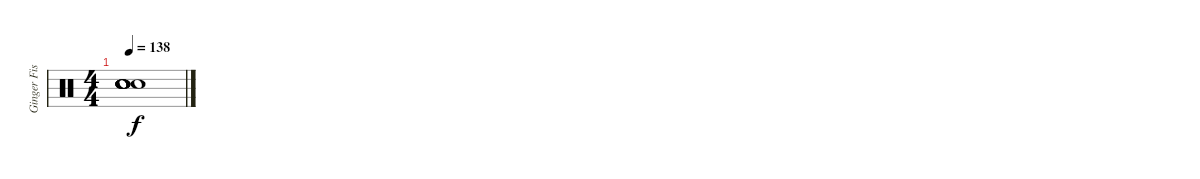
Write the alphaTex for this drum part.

\track ("Ginger Fish [Drums]" "Ginger Fis") {instrument percussion}
\staff {score}
\articulation defaults
\ts (4 4)
\tempo 138
\clef neutral
\ks c
("Snare (hit)"{t} "Snare (hit)"{t} "Snare (hit)"{t} "Snare (hit)"{t} "Snare (hit)"{t} "Snare (hit)"{t}).1{dy f}
